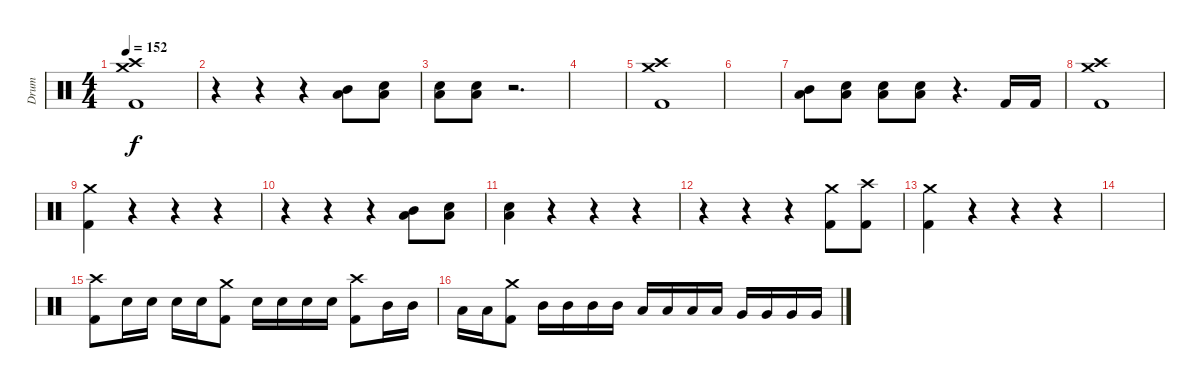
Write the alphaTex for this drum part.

\track ("Drum" "Drum") {instrument percussion}
\staff {score}
\articulation defaults
\ts (4 4)
\tempo 152
\clef neutral
\ks c
("Crash medium (hit)" "Crash high (hit)" "Kick (hit) 2").1{dy f} |
r.4 r.4 r.4 ("Mid Tom (hit)" "Low Tom (hit)").8 ("Snare (hit) 2" "Low Floor Tom (hit)").8 |
("Snare (hit) 2" "Low Floor Tom (hit)").8 ("Snare (hit) 2" "Low Floor Tom (hit)").8 r.2{d} |
|
("Crash medium (hit)" "Crash high (hit)" "Kick (hit) 2").1 |
|
("Mid Tom (hit)" "Low Tom (hit)").8 ("Snare (hit) 2" "Low Floor Tom (hit)").8 ("Snare (hit) 2" "Low Floor Tom (hit)").8 ("Snare (hit) 2" "Low Floor Tom (hit)").8 r.4{d} "Kick (hit) 2".16 "Kick (hit) 2".16 |
("Crash medium (hit)" "Crash high (hit)" "Kick (hit) 2").1 |
("Crash medium (hit)" "Kick (hit) 2").4 r.4 r.4 r.4 |
r.4 r.4 r.4 ("Mid Tom (hit)" "Low Tom (hit)").8 ("Snare (hit) 2" "Low Floor Tom (hit)").8 |
("Snare (hit) 2" "Low Floor Tom (hit)").4 r.4 r.4 r.4 |
r.4 r.4 r.4 ("Crash medium (hit)" "Kick (hit) 2").8 ("Crash high (hit)" "Kick (hit) 2").8 |
("Crash medium (hit)" "Kick (hit) 2").4 r.4 r.4 r.4 |
|
("Crash high (hit)" "Kick (hit) 2").8 "Snare (hit) 2".16 "Snare (hit) 2".16 "Snare (hit) 2".16 "Snare (hit) 2".16 ("Crash medium (hit)" "Kick (hit) 2").8 "Snare (hit) 2".16 "Snare (hit) 2".16 "Snare (hit) 2".16 "Snare (hit) 2".16 ("Crash high (hit)" "Kick (hit) 2").8 "Mid Tom (hit)".16 "Mid Tom (hit)".16 |
"Low Tom (hit)".16 "Low Tom (hit)".16 ("Crash medium (hit)" "Kick (hit) 2").8 "Mid Tom (hit)".16 "Mid Tom (hit)".16 "Mid Tom (hit)".16 "Mid Tom (hit)".16 "Low Tom (hit)".16 "Low Tom (hit)".16 "Low Tom (hit)".16 "Low Tom (hit)".16 "Very Low Tom (hit)".16 "Very Low Tom (hit)".16 "Very Low Tom (hit)".16 "Very Low Tom (hit)".16
